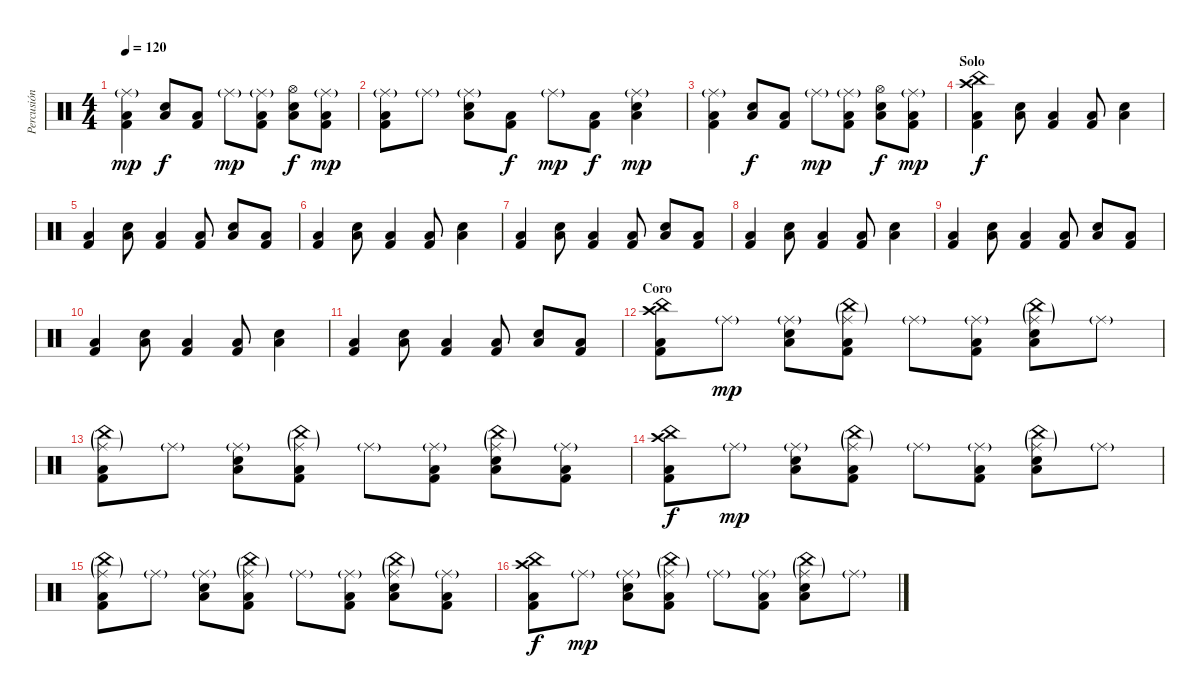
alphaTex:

\track ("Percusión" "Percusión") {instrument percussion}
\staff {score}
\articulation defaults
\ts (4 4)
\tempo 120
\clef neutral
\ks c
("Ride (middle)"{g} "Low Floor Tom (hit)" "Kick (hit) 2").4{dy mp} ("Low Tom (hit)" "Electric Snare (hit)").8{dy f} ("Low Floor Tom (hit)" "Kick (hit) 2").8 "Ride (middle)"{g}.8{dy mp} ("Ride (middle)"{g} "Low Floor Tom (hit)" "Kick (hit) 2").8 ("Hi-Hat (open)" "Low Tom (hit)" "Electric Snare (hit)").8{dy f} ("Ride (middle)"{g} "Low Floor Tom (hit)" "Kick (hit) 2").8{dy mp} |
("Ride (middle)"{g} "Low Floor Tom (hit)" "Kick (hit) 2").8 "Ride (middle)"{g}.8 ("Ride (middle)"{g} "Low Tom (hit)" "Electric Snare (hit)").8 ("Low Floor Tom (hit)" "Kick (hit) 2").8{dy f} "Ride (middle)"{g}.8{dy mp} ("Low Floor Tom (hit)" "Kick (hit) 2").8{dy f} ("Ride (middle)"{g} "Low Tom (hit)" "Electric Snare (hit)").4{dy mp} |
("Ride (middle)"{g} "Low Floor Tom (hit)" "Kick (hit) 2").4 ("Low Tom (hit)" "Electric Snare (hit)").8{dy f} ("Low Floor Tom (hit)" "Kick (hit) 2").8 "Ride (middle)"{g}.8{dy mp} ("Ride (middle)"{g} "Low Floor Tom (hit)" "Kick (hit) 2").8 ("Hi-Hat (open)" "Low Tom (hit)" "Electric Snare (hit)").8{dy f} ("Ride (middle)"{g} "Low Floor Tom (hit)" "Kick (hit) 2").8{dy mp} |
\section ("" "Solo")
("China (hit)" "Crash high (hit)" "Low Floor Tom (hit)" "Kick (hit) 2").4{dy f} ("Low Tom (hit)" "Electric Snare (hit)").8 ("Low Floor Tom (hit)" "Kick (hit) 2").4 ("Low Floor Tom (hit)" "Kick (hit) 2").8 ("Low Tom (hit)" "Electric Snare (hit)").4 |
("Low Floor Tom (hit)" "Kick (hit) 2").4 ("Low Tom (hit)" "Electric Snare (hit)").8 ("Low Floor Tom (hit)" "Kick (hit) 2").4 ("Low Floor Tom (hit)" "Kick (hit) 2").8 ("Low Tom (hit)" "Electric Snare (hit)").8 ("Low Floor Tom (hit)" "Kick (hit) 2").8 |
("Low Floor Tom (hit)" "Kick (hit) 2").4 ("Low Tom (hit)" "Electric Snare (hit)").8 ("Low Floor Tom (hit)" "Kick (hit) 2").4 ("Low Floor Tom (hit)" "Kick (hit) 2").8 ("Low Tom (hit)" "Electric Snare (hit)").4 |
("Low Floor Tom (hit)" "Kick (hit) 2").4 ("Low Tom (hit)" "Electric Snare (hit)").8 ("Low Floor Tom (hit)" "Kick (hit) 2").4 ("Low Floor Tom (hit)" "Kick (hit) 2").8 ("Low Tom (hit)" "Electric Snare (hit)").8 ("Low Floor Tom (hit)" "Kick (hit) 2").8 |
("Low Floor Tom (hit)" "Kick (hit) 2").4 ("Low Tom (hit)" "Electric Snare (hit)").8 ("Low Floor Tom (hit)" "Kick (hit) 2").4 ("Low Floor Tom (hit)" "Kick (hit) 2").8 ("Low Tom (hit)" "Electric Snare (hit)").4 |
("Low Floor Tom (hit)" "Kick (hit) 2").4 ("Low Tom (hit)" "Electric Snare (hit)").8 ("Low Floor Tom (hit)" "Kick (hit) 2").4 ("Low Floor Tom (hit)" "Kick (hit) 2").8 ("Low Tom (hit)" "Electric Snare (hit)").8 ("Low Floor Tom (hit)" "Kick (hit) 2").8 |
("Low Floor Tom (hit)" "Kick (hit) 2").4 ("Low Tom (hit)" "Electric Snare (hit)").8 ("Low Floor Tom (hit)" "Kick (hit) 2").4 ("Low Floor Tom (hit)" "Kick (hit) 2").8 ("Low Tom (hit)" "Electric Snare (hit)").4 |
("Low Floor Tom (hit)" "Kick (hit) 2").4 ("Low Tom (hit)" "Electric Snare (hit)").8 ("Low Floor Tom (hit)" "Kick (hit) 2").4 ("Low Floor Tom (hit)" "Kick (hit) 2").8 ("Low Tom (hit)" "Electric Snare (hit)").8 ("Low Floor Tom (hit)" "Kick (hit) 2").8 |
\section ("" "Coro")
("China (hit)" "Crash high (hit)" "Low Floor Tom (hit)" "Kick (hit) 2").8 "Ride (middle)"{g}.8{dy mp} ("Ride (middle)"{g} "Low Tom (hit)" "Electric Snare (hit)").8 ("Ride (middle)"{g} "China (hit)"{g} "Low Floor Tom (hit)" "Kick (hit) 2").8 "Ride (middle)"{g}.8 ("Ride (middle)"{g} "Low Floor Tom (hit)" "Kick (hit) 2").8 ("Ride (middle)"{g} "China (hit)"{g} "Low Tom (hit)" "Electric Snare (hit)").8 "Ride (middle)"{g}.8 |
("Ride (middle)"{g} "China (hit)"{g} "Low Floor Tom (hit)" "Kick (hit) 2").8 "Ride (middle)"{g}.8 ("Ride (middle)"{g} "Low Tom (hit)" "Electric Snare (hit)").8 ("Ride (middle)"{g} "China (hit)"{g} "Low Floor Tom (hit)" "Kick (hit) 2").8 "Ride (middle)"{g}.8 ("Ride (middle)"{g} "Low Floor Tom (hit)" "Kick (hit) 2").8 ("Ride (middle)"{g} "China (hit)"{g} "Low Tom (hit)" "Electric Snare (hit)").8 ("Ride (middle)"{g} "Low Floor Tom (hit)" "Kick (hit) 2").8 |
("China (hit)" "Crash high (hit)" "Low Floor Tom (hit)" "Kick (hit) 2").8{dy f} "Ride (middle)"{g}.8{dy mp} ("Ride (middle)"{g} "Low Tom (hit)" "Electric Snare (hit)").8 ("Ride (middle)"{g} "China (hit)"{g} "Low Floor Tom (hit)" "Kick (hit) 2").8 "Ride (middle)"{g}.8 ("Ride (middle)"{g} "Low Floor Tom (hit)" "Kick (hit) 2").8 ("Ride (middle)"{g} "China (hit)"{g} "Low Tom (hit)" "Electric Snare (hit)").8 "Ride (middle)"{g}.8 |
("Ride (middle)"{g} "China (hit)"{g} "Low Floor Tom (hit)" "Kick (hit) 2").8 "Ride (middle)"{g}.8 ("Ride (middle)"{g} "Low Tom (hit)" "Electric Snare (hit)").8 ("Ride (middle)"{g} "China (hit)"{g} "Low Floor Tom (hit)" "Kick (hit) 2").8 "Ride (middle)"{g}.8 ("Ride (middle)"{g} "Low Floor Tom (hit)" "Kick (hit) 2").8 ("Ride (middle)"{g} "China (hit)"{g} "Low Tom (hit)" "Electric Snare (hit)").8 ("Ride (middle)"{g} "Low Floor Tom (hit)" "Kick (hit) 2").8 |
("China (hit)" "Crash high (hit)" "Low Floor Tom (hit)" "Kick (hit) 2").8{dy f} "Ride (middle)"{g}.8{dy mp} ("Ride (middle)"{g} "Low Tom (hit)" "Electric Snare (hit)").8 ("Ride (middle)"{g} "China (hit)"{g} "Low Floor Tom (hit)" "Kick (hit) 2").8 "Ride (middle)"{g}.8 ("Ride (middle)"{g} "Low Floor Tom (hit)" "Kick (hit) 2").8 ("Ride (middle)"{g} "China (hit)"{g} "Low Tom (hit)" "Electric Snare (hit)").8 "Ride (middle)"{g}.8
